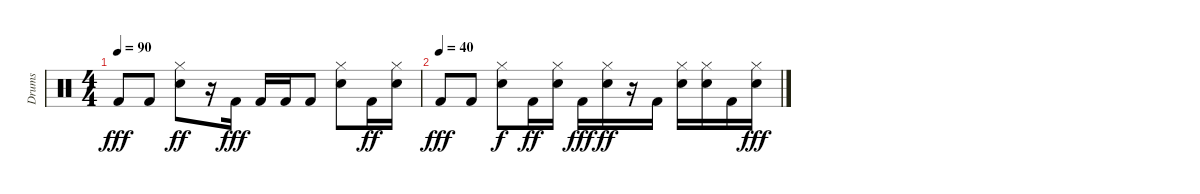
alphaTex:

\track ("Drums" "Drums") {instrument percussion}
\staff {score}
\articulation defaults
\ts (4 4)
\tempo 90
\clef neutral
\ks c "Kick (hit) 2".8{dy fff} "Kick (hit) 2".8
("Hi-Hat (closed)" "Snare (hit) 2").8{dy ff} r.16 "Kick (hit) 2".16{dy fff} "Kick (hit) 2".16 "Kick (hit) 2".16 "Kick (hit) 2".8 ("Hi-Hat (closed)" "Snare (hit) 2").8 "Kick (hit) 2".16{dy ff} ("Hi-Hat (closed)" "Snare (hit) 2").16 |
\tempo (40)
"Kick (hit) 2".8{dy fff} "Kick (hit) 2".8 ("Hi-Hat (closed)" "Snare (hit) 2").8{dy f} "Kick (hit) 2".16{dy ff} ("Hi-Hat (closed)" "Snare (hit) 2").16 "Kick (hit) 2".16{dy fff} ("Hi-Hat (closed)" "Snare (hit) 2").16{dy ff} r.16 "Kick (hit) 2".16 ("Hi-Hat (closed)" "Snare (hit) 2").16 ("Hi-Hat (closed)" "Snare (hit) 2").16 "Kick (hit) 2".16 ("Hi-Hat (closed)" "Snare (hit) 2").16{dy fff}
